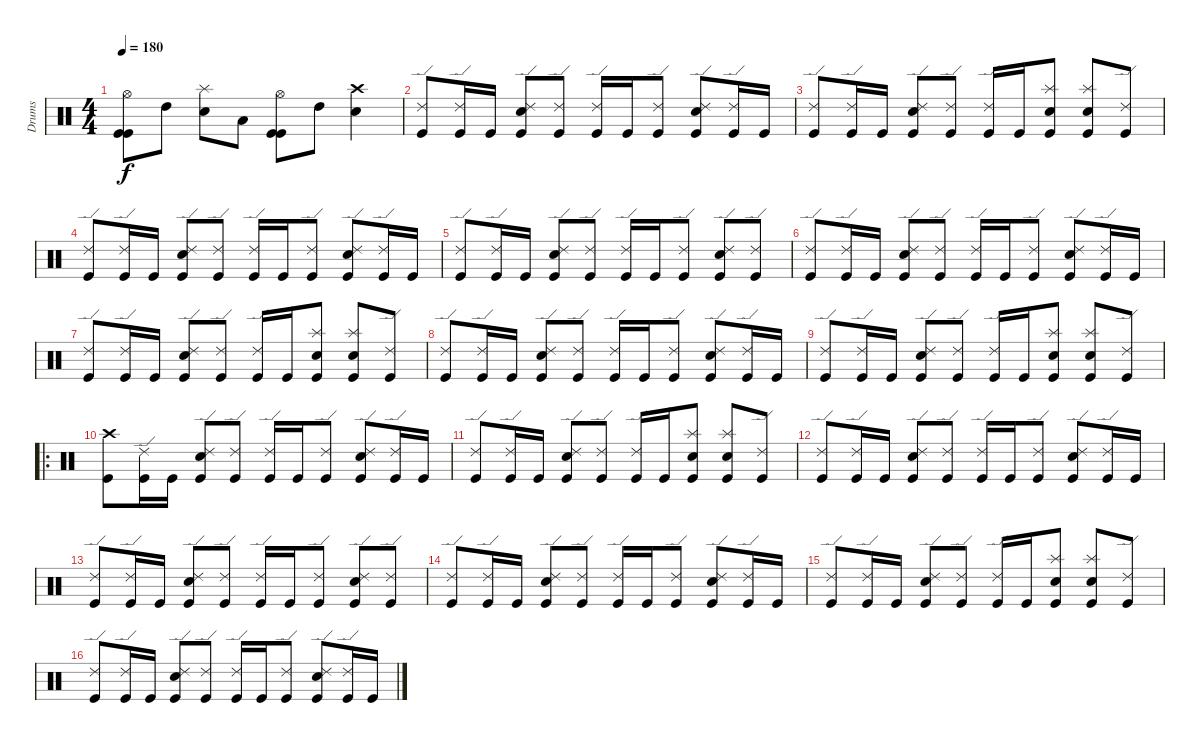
\track ("Drums" "Drums") {instrument percussion}
\staff {score}
\articulation defaults
\ts (4 4)
\tempo 180
\clef neutral
\ks c
("Hi-Hat (open)" "Kick (hit)" "Kick (hit)").8{dy f} "High Tom (hit)".8 ("Splash (hit)" "Snare (hit) 2").8 "Low Tom (hit)".8 ("Hi-Hat (open)" "Kick (hit)" "Kick (hit)").8 "High Tom (hit)".8 ("Crash high (hit)" "Snare (hit) 2").4 |
("Ride (edge) 2" "Kick (hit)").8 ("Ride (edge) 2" "Kick (hit)").16 "Kick (hit)".16 ("Ride (edge) 2" "Snare (hit) 2" "Kick (hit)").8 ("Ride (edge) 2" "Kick (hit)").8 ("Ride (edge) 2" "Kick (hit)").16 "Kick (hit)".16 ("Ride (edge) 2" "Kick (hit)").8 ("Ride (edge) 2" "Snare (hit) 2" "Kick (hit)").8 ("Ride (edge) 2" "Kick (hit)").16 "Kick (hit)".16 |
("Ride (edge) 2" "Kick (hit)").8 ("Ride (edge) 2" "Kick (hit)").16 "Kick (hit)".16 ("Ride (edge) 2" "Snare (hit) 2" "Kick (hit)").8 ("Ride (edge) 2" "Kick (hit)").8 ("Ride (edge) 2" "Kick (hit)").16 "Kick (hit)".16 ("Splash (hit)" "Snare (hit) 2" "Kick (hit)").8 ("Splash (hit)" "Snare (hit) 2" "Kick (hit)").8 ("Ride (edge) 2" "Kick (hit)").8 |
("Ride (edge) 2" "Kick (hit)").8 ("Ride (edge) 2" "Kick (hit)").16 "Kick (hit)".16 ("Ride (edge) 2" "Snare (hit) 2" "Kick (hit)").8 ("Ride (edge) 2" "Kick (hit)").8 ("Ride (edge) 2" "Kick (hit)").16 "Kick (hit)".16 ("Ride (edge) 2" "Kick (hit)").8 ("Ride (edge) 2" "Snare (hit) 2" "Kick (hit)").8 ("Ride (edge) 2" "Kick (hit)").16 "Kick (hit)".16 |
("Ride (edge) 2" "Kick (hit)").8 ("Ride (edge) 2" "Kick (hit)").16 "Kick (hit)".16 ("Ride (edge) 2" "Snare (hit) 2" "Kick (hit)").8 ("Ride (edge) 2" "Kick (hit)").8 ("Ride (edge) 2" "Kick (hit)").16 "Kick (hit)".16 ("Ride (edge) 2" "Kick (hit)").8 ("Ride (edge) 2" "Snare (hit) 2" "Kick (hit)").8 ("Ride (edge) 2" "Kick (hit)").8 |
("Ride (edge) 2" "Kick (hit)").8 ("Ride (edge) 2" "Kick (hit)").16 "Kick (hit)".16 ("Ride (edge) 2" "Snare (hit) 2" "Kick (hit)").8 ("Ride (edge) 2" "Kick (hit)").8 ("Ride (edge) 2" "Kick (hit)").16 "Kick (hit)".16 ("Ride (edge) 2" "Kick (hit)").8 ("Ride (edge) 2" "Snare (hit) 2" "Kick (hit)").8 ("Ride (edge) 2" "Kick (hit)").16 "Kick (hit)".16 |
("Ride (edge) 2" "Kick (hit)").8 ("Ride (edge) 2" "Kick (hit)").16 "Kick (hit)".16 ("Ride (edge) 2" "Snare (hit) 2" "Kick (hit)").8 ("Ride (edge) 2" "Kick (hit)").8 ("Ride (edge) 2" "Kick (hit)").16 "Kick (hit)".16 ("Splash (hit)" "Snare (hit) 2" "Kick (hit)").8 ("Splash (hit)" "Snare (hit) 2" "Kick (hit)").8 ("Ride (edge) 2" "Kick (hit)").8 |
("Ride (edge) 2" "Kick (hit)").8 ("Ride (edge) 2" "Kick (hit)").16 "Kick (hit)".16 ("Ride (edge) 2" "Snare (hit) 2" "Kick (hit)").8 ("Ride (edge) 2" "Kick (hit)").8 ("Ride (edge) 2" "Kick (hit)").16 "Kick (hit)".16 ("Ride (edge) 2" "Kick (hit)").8 ("Ride (edge) 2" "Snare (hit) 2" "Kick (hit)").8 ("Ride (edge) 2" "Kick (hit)").16 "Kick (hit)".16 |
("Ride (edge) 2" "Kick (hit)").8 ("Ride (edge) 2" "Kick (hit)").16 "Kick (hit)".16 ("Ride (edge) 2" "Snare (hit) 2" "Kick (hit)").8 ("Ride (edge) 2" "Kick (hit)").8 ("Ride (edge) 2" "Kick (hit)").16 "Kick (hit)".16 ("Splash (hit)" "Snare (hit) 2" "Kick (hit)").8 ("Splash (hit)" "Snare (hit) 2" "Kick (hit)").8 ("Ride (edge) 2" "Kick (hit)").8 |
\ro
("Crash high (hit)" "Kick (hit)").8 ("Ride (edge) 2" "Kick (hit)").16 "Kick (hit)".16 ("Ride (edge) 2" "Snare (hit) 2" "Kick (hit)").8 ("Ride (edge) 2" "Kick (hit)").8 ("Ride (edge) 2" "Kick (hit)").16 "Kick (hit)".16 ("Ride (edge) 2" "Kick (hit)").8 ("Ride (edge) 2" "Snare (hit) 2" "Kick (hit)").8 ("Ride (edge) 2" "Kick (hit)").16 "Kick (hit)".16 |
("Ride (edge) 2" "Kick (hit)").8 ("Ride (edge) 2" "Kick (hit)").16 "Kick (hit)".16 ("Ride (edge) 2" "Snare (hit) 2" "Kick (hit)").8 ("Ride (edge) 2" "Kick (hit)").8 ("Ride (edge) 2" "Kick (hit)").16 "Kick (hit)".16 ("Splash (hit)" "Snare (hit) 2" "Kick (hit)").8 ("Splash (hit)" "Snare (hit) 2" "Kick (hit)").8 ("Ride (edge) 2" "Kick (hit)").8 |
("Ride (edge) 2" "Kick (hit)").8 ("Ride (edge) 2" "Kick (hit)").16 "Kick (hit)".16 ("Ride (edge) 2" "Snare (hit) 2" "Kick (hit)").8 ("Ride (edge) 2" "Kick (hit)").8 ("Ride (edge) 2" "Kick (hit)").16 "Kick (hit)".16 ("Ride (edge) 2" "Kick (hit)").8 ("Ride (edge) 2" "Snare (hit) 2" "Kick (hit)").8 ("Ride (edge) 2" "Kick (hit)").16 "Kick (hit)".16 |
("Ride (edge) 2" "Kick (hit)").8 ("Ride (edge) 2" "Kick (hit)").16 "Kick (hit)".16 ("Ride (edge) 2" "Snare (hit) 2" "Kick (hit)").8 ("Ride (edge) 2" "Kick (hit)").8 ("Ride (edge) 2" "Kick (hit)").16 "Kick (hit)".16 ("Ride (edge) 2" "Kick (hit)").8 ("Ride (edge) 2" "Snare (hit) 2" "Kick (hit)").8 ("Ride (edge) 2" "Kick (hit)").8 |
("Ride (edge) 2" "Kick (hit)").8 ("Ride (edge) 2" "Kick (hit)").16 "Kick (hit)".16 ("Ride (edge) 2" "Snare (hit) 2" "Kick (hit)").8 ("Ride (edge) 2" "Kick (hit)").8 ("Ride (edge) 2" "Kick (hit)").16 "Kick (hit)".16 ("Ride (edge) 2" "Kick (hit)").8 ("Ride (edge) 2" "Snare (hit) 2" "Kick (hit)").8 ("Ride (edge) 2" "Kick (hit)").16 "Kick (hit)".16 |
("Ride (edge) 2" "Kick (hit)").8 ("Ride (edge) 2" "Kick (hit)").16 "Kick (hit)".16 ("Ride (edge) 2" "Snare (hit) 2" "Kick (hit)").8 ("Ride (edge) 2" "Kick (hit)").8 ("Ride (edge) 2" "Kick (hit)").16 "Kick (hit)".16 ("Splash (hit)" "Snare (hit) 2" "Kick (hit)").8 ("Splash (hit)" "Snare (hit) 2" "Kick (hit)").8 ("Ride (edge) 2" "Kick (hit)").8 |
("Ride (edge) 2" "Kick (hit)").8 ("Ride (edge) 2" "Kick (hit)").16 "Kick (hit)".16 ("Ride (edge) 2" "Snare (hit) 2" "Kick (hit)").8 ("Ride (edge) 2" "Kick (hit)").8 ("Ride (edge) 2" "Kick (hit)").16 "Kick (hit)".16 ("Ride (edge) 2" "Kick (hit)").8 ("Ride (edge) 2" "Snare (hit) 2" "Kick (hit)").8 ("Ride (edge) 2" "Kick (hit)").16 "Kick (hit)".16
